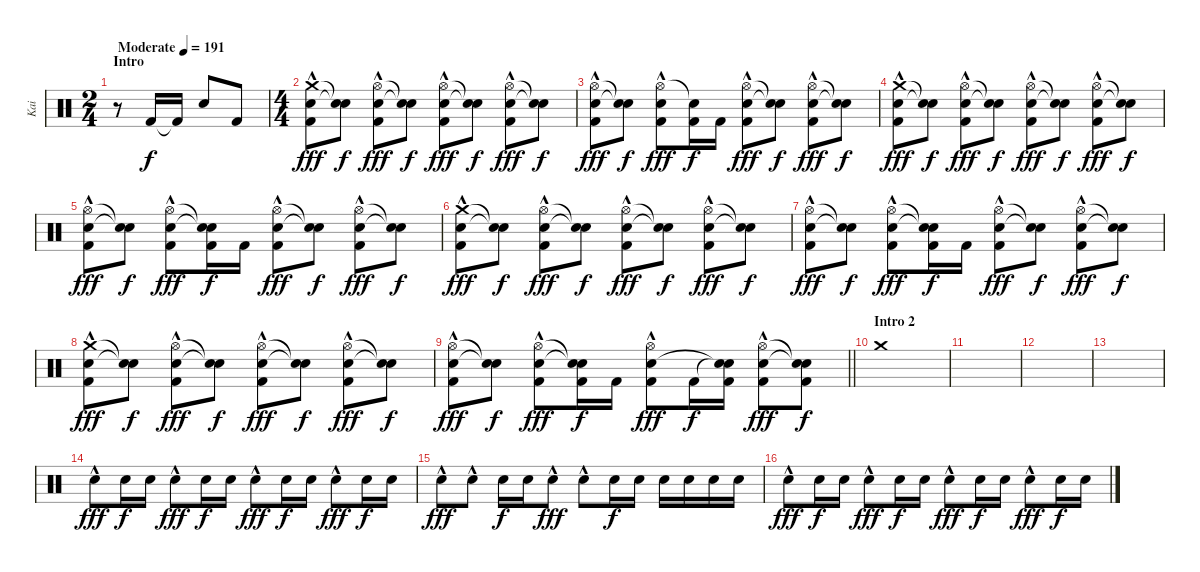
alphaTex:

\track ("Kai" "Kai") {instrument percussion}
\staff {score}
\articulation defaults
\ts (2 4)
\section ("" "Intro")
\tempo (191 "Moderate")
\clef neutral
\ks c
r.8{dy f} "Kick (hit) 2".16 "Kick (hit) 2"{t}.16 "Snare (hit) 2".8 "Kick (hit) 2".8 |
\ts (4 4)
("Crash medium (hit)"{hac} "Snare (hit) 2"{hac} "Kick (hit) 2").8{dy fff} ("Snare (hit)"{t} "Snare (hit)"{t}).8{dy f} ("Hi-Hat (open)" "Snare (hit) 2"{hac} "Kick (hit) 2").8{dy fff} ("Snare (hit)"{t} "Snare (hit)"{t}).8{dy f} ("Hi-Hat (open)" "Snare (hit) 2"{hac} "Kick (hit) 2").8{dy fff} ("Snare (hit)"{t} "Snare (hit)"{t}).8{dy f} ("Hi-Hat (open)" "Snare (hit) 2"{hac} "Kick (hit) 2").8{dy fff} ("Snare (hit)"{t} "Snare (hit)"{t}).8{dy f} |
("Hi-Hat (open)" "Snare (hit) 2"{hac} "Kick (hit) 2").8{dy fff} ("Snare (hit)"{t} "Snare (hit)"{t}).8{dy f} ("Hi-Hat (open)" "Snare (hit) 2"{hac} "Kick (hit) 2").8{dy fff} ("Snare (hit)"{t} "Kick (hit) 2").16{dy f} "Kick (hit) 2".16 ("Hi-Hat (open)" "Snare (hit) 2"{hac} "Kick (hit) 2").8{dy fff} ("Snare (hit)"{t} "Snare (hit)"{t}).8{dy f} ("Hi-Hat (open)" "Snare (hit) 2"{hac} "Kick (hit) 2").8{dy fff} ("Snare (hit)"{t} "Snare (hit)"{t}).8{dy f} |
("Crash medium (hit)"{hac} "Snare (hit) 2"{hac} "Kick (hit) 2").8{dy fff} ("Snare (hit)"{t} "Snare (hit)"{t}).8{dy f} ("Hi-Hat (open)" "Snare (hit) 2"{hac} "Kick (hit) 2").8{dy fff} ("Snare (hit)"{t} "Snare (hit)"{t}).8{dy f} ("Hi-Hat (open)" "Snare (hit) 2"{hac} "Kick (hit) 2").8{dy fff} ("Snare (hit)"{t} "Snare (hit)"{t}).8{dy f} ("Hi-Hat (open)" "Snare (hit) 2"{hac} "Kick (hit) 2").8{dy fff} ("Snare (hit)"{t} "Snare (hit)"{t}).8{dy f} |
("Hi-Hat (open)" "Snare (hit) 2"{hac} "Kick (hit) 2").8{dy fff} ("Snare (hit)"{t} "Snare (hit)"{t}).8{dy f} ("Hi-Hat (open)" "Snare (hit) 2"{hac} "Kick (hit) 2").8{dy fff} ("Snare (hit)"{t} "Snare (hit)"{t} "Kick (hit) 2").16{dy f} "Kick (hit) 2".16 ("Hi-Hat (open)" "Snare (hit) 2"{hac} "Kick (hit) 2").8{dy fff} ("Snare (hit)"{t} "Snare (hit)"{t}).8{dy f} ("Hi-Hat (open)" "Snare (hit) 2"{hac} "Kick (hit) 2").8{dy fff} ("Snare (hit)"{t} "Snare (hit)"{t}).8{dy f} |
("Crash medium (hit)"{hac} "Snare (hit) 2"{hac} "Kick (hit) 2").8{dy fff} ("Snare (hit)"{t} "Snare (hit)"{t}).8{dy f} ("Hi-Hat (open)" "Snare (hit) 2"{hac} "Kick (hit) 2").8{dy fff} ("Snare (hit)"{t} "Snare (hit)"{t}).8{dy f} ("Hi-Hat (open)" "Snare (hit) 2"{hac} "Kick (hit) 2").8{dy fff} ("Snare (hit)"{t} "Snare (hit)"{t}).8{dy f} ("Hi-Hat (open)" "Snare (hit) 2"{hac} "Kick (hit) 2").8{dy fff} ("Snare (hit)"{t} "Snare (hit)"{t}).8{dy f} |
("Hi-Hat (open)" "Snare (hit) 2"{hac} "Kick (hit) 2").8{dy fff} ("Snare (hit)"{t} "Snare (hit)"{t}).8{dy f} ("Hi-Hat (open)" "Snare (hit) 2"{hac} "Kick (hit) 2").8{dy fff} ("Snare (hit)"{t} "Snare (hit)"{t} "Kick (hit) 2").16{dy f} "Kick (hit) 2".16 ("Hi-Hat (open)" "Snare (hit) 2"{hac} "Kick (hit) 2").8{dy fff} ("Snare (hit)"{t} "Snare (hit)"{t}).8{dy f} ("Hi-Hat (open)" "Snare (hit) 2"{hac} "Kick (hit) 2").8{dy fff} ("Snare (hit)"{t} "Snare (hit)"{t}).8{dy f} |
("Crash medium (hit)"{hac} "Snare (hit) 2"{hac} "Kick (hit) 2").8{dy fff} ("Snare (hit)"{t} "Snare (hit)"{t}).8{dy f} ("Hi-Hat (open)" "Snare (hit) 2"{hac} "Kick (hit) 2").8{dy fff} ("Snare (hit)"{t} "Snare (hit)"{t}).8{dy f} ("Hi-Hat (open)" "Snare (hit) 2"{hac} "Kick (hit) 2").8{dy fff} ("Snare (hit)"{t} "Snare (hit)"{t}).8{dy f} ("Hi-Hat (open)" "Snare (hit) 2"{hac} "Kick (hit) 2").8{dy fff} ("Snare (hit)"{t} "Snare (hit)"{t}).8{dy f} |
\barLineRight lightlight
("Hi-Hat (open)" "Snare (hit) 2"{hac} "Kick (hit) 2").8{dy fff} ("Snare (hit)"{t} "Snare (hit)"{t}).8{dy f} ("Hi-Hat (open)" "Snare (hit) 2"{hac} "Kick (hit) 2").8{dy fff} ("Snare (hit)"{t} "Snare (hit)"{t} "Kick (hit) 2").16{dy f} "Kick (hit) 2".16 ("Hi-Hat (open)" "Snare (hit) 2"{hac} "Kick (hit) 2").8{dy fff} "Kick (hit) 2".16{dy f} ("Snare (hit)"{t} "Snare (hit)"{t} "Kick (hit) 2").16 ("Hi-Hat (open)" "Snare (hit) 2"{hac} "Kick (hit) 2").8{dy fff} ("Snare (hit)"{t} "Snare (hit)"{t} "Kick (hit) 2").8{dy f} |
\section ("" "Intro 2")
"Crash medium (hit)".1 |
|
|
|
"Snare (hit) 2"{hac}.8{dy fff} "Snare (hit) 2".16{dy f} "Snare (hit) 2".16 "Snare (hit) 2"{hac}.8{dy fff} "Snare (hit) 2".16{dy f} "Snare (hit) 2".16 "Snare (hit) 2"{hac}.8{dy fff} "Snare (hit) 2".16{dy f} "Snare (hit) 2".16 "Snare (hit) 2"{hac}.8{dy fff} "Snare (hit) 2".16{dy f} "Snare (hit) 2".16 |
"Snare (hit) 2"{hac}.8{dy fff} "Snare (hit) 2"{hac}.8 "Snare (hit) 2".16{dy f} "Snare (hit) 2".16 "Snare (hit) 2"{hac}.8{dy fff} "Snare (hit) 2"{hac}.8 "Snare (hit) 2".16{dy f} "Snare (hit) 2".16 "Snare (hit) 2".16 "Snare (hit) 2".16 "Snare (hit) 2".16 "Snare (hit) 2".16 |
"Snare (hit) 2"{hac}.8{dy fff} "Snare (hit) 2".16{dy f} "Snare (hit) 2".16 "Snare (hit) 2"{hac}.8{dy fff} "Snare (hit) 2".16{dy f} "Snare (hit) 2".16 "Snare (hit) 2"{hac}.8{dy fff} "Snare (hit) 2".16{dy f} "Snare (hit) 2".16 "Snare (hit) 2"{hac}.8{dy fff} "Snare (hit) 2".16{dy f} "Snare (hit) 2".16
